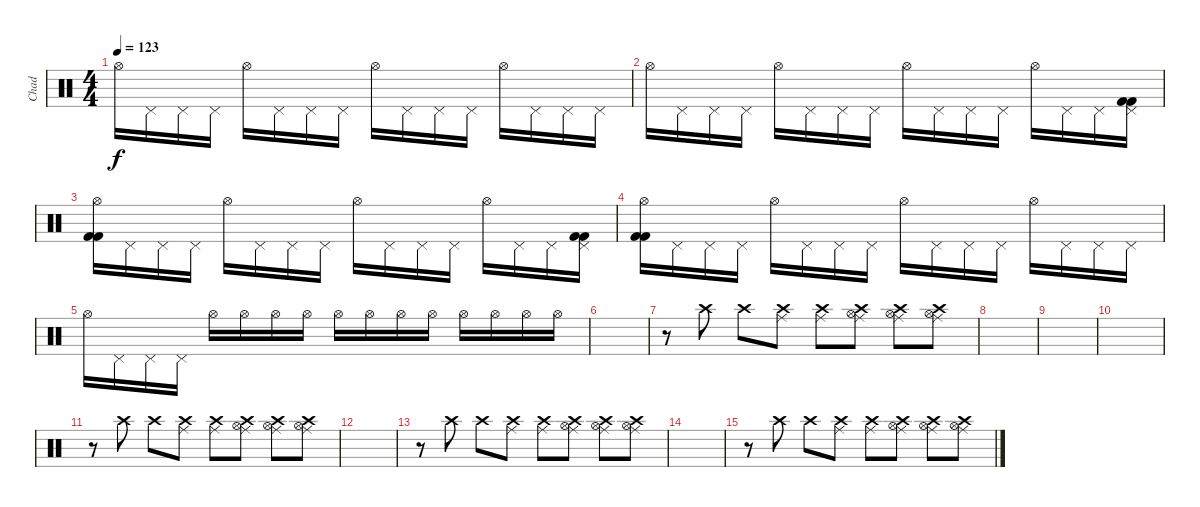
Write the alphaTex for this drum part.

\track ("Chad" "Chad") {instrument percussion}
\staff {score}
\articulation defaults
\ts (4 4)
\tempo 123
\clef neutral
\ks c "Hi-Hat (open)".16{dy f} "Pedal Hi-Hat (hit)".16 "Pedal Hi-Hat (hit)".16 "Pedal Hi-Hat (hit)".16 "Hi-Hat (open)".16 "Pedal Hi-Hat (hit)".16 "Pedal Hi-Hat (hit)".16 "Pedal Hi-Hat (hit)".16 "Hi-Hat (open)".16 "Pedal Hi-Hat (hit)".16 "Pedal Hi-Hat (hit)".16 "Pedal Hi-Hat (hit)".16 "Hi-Hat (open)".16 "Pedal Hi-Hat (hit)".16 "Pedal Hi-Hat (hit)".16 "Pedal Hi-Hat (hit)".16
|
"Hi-Hat (open)".16 "Pedal Hi-Hat (hit)".16 "Pedal Hi-Hat (hit)".16 "Pedal Hi-Hat (hit)".16 "Hi-Hat (open)".16 "Pedal Hi-Hat (hit)".16 "Pedal Hi-Hat (hit)".16 "Pedal Hi-Hat (hit)".16 "Hi-Hat (open)".16 "Pedal Hi-Hat (hit)".16 "Pedal Hi-Hat (hit)".16 "Pedal Hi-Hat (hit)".16 "Hi-Hat (open)".16 "Pedal Hi-Hat (hit)".16 "Pedal Hi-Hat (hit)".16 ("Pedal Hi-Hat (hit)" "Kick (hit) 2" "Kick (hit) 2").16 |
("Hi-Hat (open)" "Kick (hit) 2" "Kick (hit) 2").16 "Pedal Hi-Hat (hit)".16 "Pedal Hi-Hat (hit)".16 "Pedal Hi-Hat (hit)".16 "Hi-Hat (open)".16 "Pedal Hi-Hat (hit)".16 "Pedal Hi-Hat (hit)".16 "Pedal Hi-Hat (hit)".16 "Hi-Hat (open)".16 "Pedal Hi-Hat (hit)".16 "Pedal Hi-Hat (hit)".16 "Pedal Hi-Hat (hit)".16 "Hi-Hat (open)".16 "Pedal Hi-Hat (hit)".16 "Pedal Hi-Hat (hit)".16 ("Pedal Hi-Hat (hit)" "Kick (hit) 2" "Kick (hit) 2").16 |
("Hi-Hat (open)" "Kick (hit) 2" "Kick (hit) 2").16 "Pedal Hi-Hat (hit)".16 "Pedal Hi-Hat (hit)".16 "Pedal Hi-Hat (hit)".16 "Hi-Hat (open)".16 "Pedal Hi-Hat (hit)".16 "Pedal Hi-Hat (hit)".16 "Pedal Hi-Hat (hit)".16 "Hi-Hat (open)".16 "Pedal Hi-Hat (hit)".16 "Pedal Hi-Hat (hit)".16 "Pedal Hi-Hat (hit)".16 "Hi-Hat (open)".16 "Pedal Hi-Hat (hit)".16 "Pedal Hi-Hat (hit)".16 "Pedal Hi-Hat (hit)".16 |
"Hi-Hat (open)".16 "Pedal Hi-Hat (hit)".16 "Pedal Hi-Hat (hit)".16 "Pedal Hi-Hat (hit)".16 "Hi-Hat (open)".16 "Hi-Hat (open)".16 "Hi-Hat (open)".16 "Hi-Hat (open)".16 "Hi-Hat (open)".16 "Hi-Hat (open)".16 "Hi-Hat (open)".16 "Hi-Hat (open)".16 "Hi-Hat (open)".16 "Hi-Hat (open)".16 "Hi-Hat (open)".16 "Hi-Hat (open)".16 |
|
r.8 "Crash high (hit)".8 "Crash high (hit)".8 ("Ride (middle)" "Crash high (hit)").8 ("Ride (middle)" "Crash high (hit)").8 ("Ride (middle)" "Crash high (hit)" "Hi-Hat (open)").8 ("Ride (middle)" "Crash high (hit)" "Hi-Hat (open)").8 ("Ride (middle)" "Crash high (hit)" "Hi-Hat (open)").8 |
|
|
|
r.8 "Crash high (hit)".8 "Crash high (hit)".8 ("Ride (middle)" "Crash high (hit)").8 ("Ride (middle)" "Crash high (hit)").8 ("Ride (middle)" "Crash high (hit)" "Hi-Hat (open)").8 ("Ride (middle)" "Crash high (hit)" "Hi-Hat (open)").8 ("Ride (middle)" "Crash high (hit)" "Hi-Hat (open)").8 |
|
r.8 "Crash high (hit)".8 "Crash high (hit)".8 ("Ride (middle)" "Crash high (hit)").8 ("Ride (middle)" "Crash high (hit)").8 ("Ride (middle)" "Crash high (hit)" "Hi-Hat (open)").8 ("Ride (middle)" "Crash high (hit)" "Hi-Hat (open)").8 ("Ride (middle)" "Crash high (hit)" "Hi-Hat (open)").8 |
|
r.8 "Crash high (hit)".8 "Crash high (hit)".8 ("Ride (middle)" "Crash high (hit)").8 ("Ride (middle)" "Crash high (hit)").8 ("Ride (middle)" "Crash high (hit)" "Hi-Hat (open)").8 ("Ride (middle)" "Crash high (hit)" "Hi-Hat (open)").8 ("Ride (middle)" "Crash high (hit)" "Hi-Hat (open)").8
